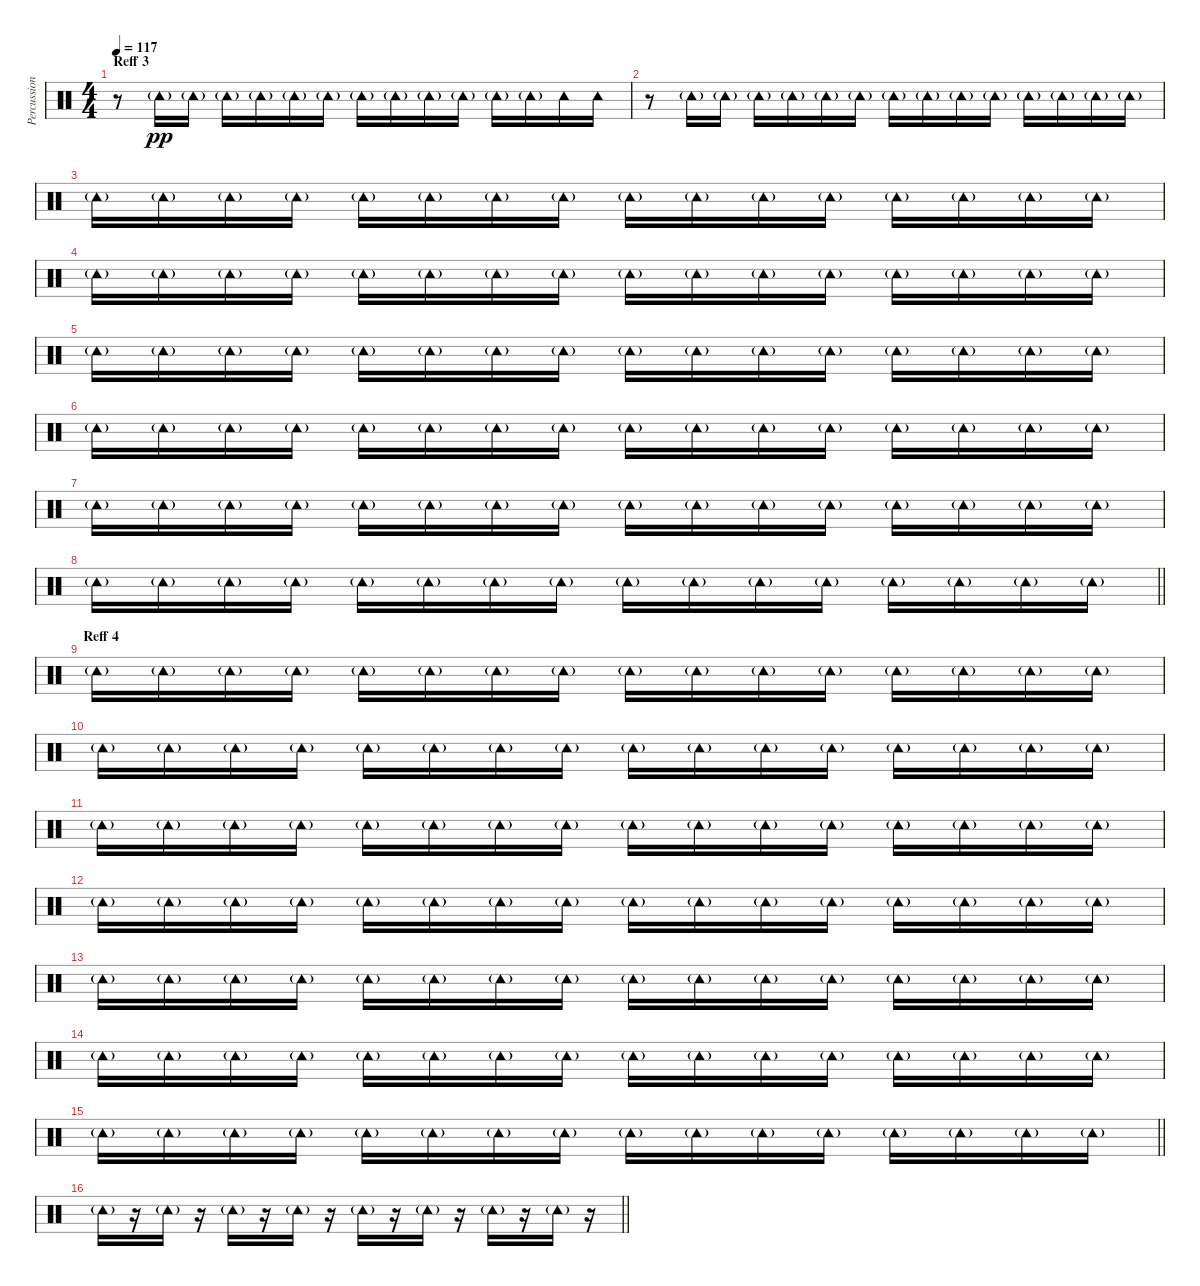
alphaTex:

\track ("Percussion 2" "Percussion") {instrument percussion}
\staff {score}
\articulation defaults
\ts (4 4)
\section ("" "Reff 3")
\tempo 117
\clef neutral
\ks c
r.8{dy pp} "Tambourine (hit)"{g}.16 "Tambourine (hit)"{g}.16 "Tambourine (hit)"{g}.16 "Tambourine (hit)"{g}.16 "Tambourine (hit)"{g}.16 "Tambourine (hit)"{g}.16 "Tambourine (hit)"{g}.16 "Tambourine (hit)"{g}.16 "Tambourine (hit)"{g}.16 "Tambourine (hit)"{g}.16 "Tambourine (hit)"{g}.16 "Tambourine (hit)"{g}.16 "Tambourine (hit)".16 "Tambourine (hit)".16 |
r.8 "Tambourine (hit)"{g}.16 "Tambourine (hit)"{g}.16 "Tambourine (hit)"{g}.16 "Tambourine (hit)"{g}.16 "Tambourine (hit)"{g}.16 "Tambourine (hit)"{g}.16 "Tambourine (hit)"{g}.16 "Tambourine (hit)"{g}.16 "Tambourine (hit)"{g}.16 "Tambourine (hit)"{g}.16 "Tambourine (hit)"{g}.16 "Tambourine (hit)"{g}.16 "Tambourine (hit)"{g}.16 "Tambourine (hit)"{g}.16 |
"Tambourine (hit)"{g}.16 "Tambourine (hit)"{g}.16 "Tambourine (hit)"{g}.16 "Tambourine (hit)"{g}.16 "Tambourine (hit)"{g}.16 "Tambourine (hit)"{g}.16 "Tambourine (hit)"{g}.16 "Tambourine (hit)"{g}.16 "Tambourine (hit)"{g}.16 "Tambourine (hit)"{g}.16 "Tambourine (hit)"{g}.16 "Tambourine (hit)"{g}.16 "Tambourine (hit)"{g}.16 "Tambourine (hit)"{g}.16 "Tambourine (hit)"{g}.16 "Tambourine (hit)"{g}.16 |
"Tambourine (hit)"{g}.16 "Tambourine (hit)"{g}.16 "Tambourine (hit)"{g}.16 "Tambourine (hit)"{g}.16 "Tambourine (hit)"{g}.16 "Tambourine (hit)"{g}.16 "Tambourine (hit)"{g}.16 "Tambourine (hit)"{g}.16 "Tambourine (hit)"{g}.16 "Tambourine (hit)"{g}.16 "Tambourine (hit)"{g}.16 "Tambourine (hit)"{g}.16 "Tambourine (hit)"{g}.16 "Tambourine (hit)"{g}.16 "Tambourine (hit)"{g}.16 "Tambourine (hit)"{g}.16 |
"Tambourine (hit)"{g}.16 "Tambourine (hit)"{g}.16 "Tambourine (hit)"{g}.16 "Tambourine (hit)"{g}.16 "Tambourine (hit)"{g}.16 "Tambourine (hit)"{g}.16 "Tambourine (hit)"{g}.16 "Tambourine (hit)"{g}.16 "Tambourine (hit)"{g}.16 "Tambourine (hit)"{g}.16 "Tambourine (hit)"{g}.16 "Tambourine (hit)"{g}.16 "Tambourine (hit)"{g}.16 "Tambourine (hit)"{g}.16 "Tambourine (hit)"{g}.16 "Tambourine (hit)"{g}.16 |
"Tambourine (hit)"{g}.16 "Tambourine (hit)"{g}.16 "Tambourine (hit)"{g}.16 "Tambourine (hit)"{g}.16 "Tambourine (hit)"{g}.16 "Tambourine (hit)"{g}.16 "Tambourine (hit)"{g}.16 "Tambourine (hit)"{g}.16 "Tambourine (hit)"{g}.16 "Tambourine (hit)"{g}.16 "Tambourine (hit)"{g}.16 "Tambourine (hit)"{g}.16 "Tambourine (hit)"{g}.16 "Tambourine (hit)"{g}.16 "Tambourine (hit)"{g}.16 "Tambourine (hit)"{g}.16 |
"Tambourine (hit)"{g}.16 "Tambourine (hit)"{g}.16 "Tambourine (hit)"{g}.16 "Tambourine (hit)"{g}.16 "Tambourine (hit)"{g}.16 "Tambourine (hit)"{g}.16 "Tambourine (hit)"{g}.16 "Tambourine (hit)"{g}.16 "Tambourine (hit)"{g}.16 "Tambourine (hit)"{g}.16 "Tambourine (hit)"{g}.16 "Tambourine (hit)"{g}.16 "Tambourine (hit)"{g}.16 "Tambourine (hit)"{g}.16 "Tambourine (hit)"{g}.16 "Tambourine (hit)"{g}.16 |
\barLineRight lightlight "Tambourine (hit)"{g}.16 "Tambourine (hit)"{g}.16 "Tambourine (hit)"{g}.16 "Tambourine (hit)"{g}.16 "Tambourine (hit)"{g}.16 "Tambourine (hit)"{g}.16 "Tambourine (hit)"{g}.16 "Tambourine (hit)"{g}.16 "Tambourine (hit)"{g}.16 "Tambourine (hit)"{g}.16 "Tambourine (hit)"{g}.16 "Tambourine (hit)"{g}.16 "Tambourine (hit)"{g}.16 "Tambourine (hit)"{g}.16 "Tambourine (hit)"{g}.16 "Tambourine (hit)"{g}.16
|
\section ("" "Reff 4")
"Tambourine (hit)"{g}.16 "Tambourine (hit)"{g}.16 "Tambourine (hit)"{g}.16 "Tambourine (hit)"{g}.16 "Tambourine (hit)"{g}.16 "Tambourine (hit)"{g}.16 "Tambourine (hit)"{g}.16 "Tambourine (hit)"{g}.16 "Tambourine (hit)"{g}.16 "Tambourine (hit)"{g}.16 "Tambourine (hit)"{g}.16 "Tambourine (hit)"{g}.16 "Tambourine (hit)"{g}.16 "Tambourine (hit)"{g}.16 "Tambourine (hit)"{g}.16 "Tambourine (hit)"{g}.16 |
"Tambourine (hit)"{g}.16 "Tambourine (hit)"{g}.16 "Tambourine (hit)"{g}.16 "Tambourine (hit)"{g}.16 "Tambourine (hit)"{g}.16 "Tambourine (hit)"{g}.16 "Tambourine (hit)"{g}.16 "Tambourine (hit)"{g}.16 "Tambourine (hit)"{g}.16 "Tambourine (hit)"{g}.16 "Tambourine (hit)"{g}.16 "Tambourine (hit)"{g}.16 "Tambourine (hit)"{g}.16 "Tambourine (hit)"{g}.16 "Tambourine (hit)"{g}.16 "Tambourine (hit)"{g}.16 |
"Tambourine (hit)"{g}.16 "Tambourine (hit)"{g}.16 "Tambourine (hit)"{g}.16 "Tambourine (hit)"{g}.16 "Tambourine (hit)"{g}.16 "Tambourine (hit)"{g}.16 "Tambourine (hit)"{g}.16 "Tambourine (hit)"{g}.16 "Tambourine (hit)"{g}.16 "Tambourine (hit)"{g}.16 "Tambourine (hit)"{g}.16 "Tambourine (hit)"{g}.16 "Tambourine (hit)"{g}.16 "Tambourine (hit)"{g}.16 "Tambourine (hit)"{g}.16 "Tambourine (hit)"{g}.16 |
"Tambourine (hit)"{g}.16 "Tambourine (hit)"{g}.16 "Tambourine (hit)"{g}.16 "Tambourine (hit)"{g}.16 "Tambourine (hit)"{g}.16 "Tambourine (hit)"{g}.16 "Tambourine (hit)"{g}.16 "Tambourine (hit)"{g}.16 "Tambourine (hit)"{g}.16 "Tambourine (hit)"{g}.16 "Tambourine (hit)"{g}.16 "Tambourine (hit)"{g}.16 "Tambourine (hit)"{g}.16 "Tambourine (hit)"{g}.16 "Tambourine (hit)"{g}.16 "Tambourine (hit)"{g}.16 |
"Tambourine (hit)"{g}.16 "Tambourine (hit)"{g}.16 "Tambourine (hit)"{g}.16 "Tambourine (hit)"{g}.16 "Tambourine (hit)"{g}.16 "Tambourine (hit)"{g}.16 "Tambourine (hit)"{g}.16 "Tambourine (hit)"{g}.16 "Tambourine (hit)"{g}.16 "Tambourine (hit)"{g}.16 "Tambourine (hit)"{g}.16 "Tambourine (hit)"{g}.16 "Tambourine (hit)"{g}.16 "Tambourine (hit)"{g}.16 "Tambourine (hit)"{g}.16 "Tambourine (hit)"{g}.16 |
"Tambourine (hit)"{g}.16 "Tambourine (hit)"{g}.16 "Tambourine (hit)"{g}.16 "Tambourine (hit)"{g}.16 "Tambourine (hit)"{g}.16 "Tambourine (hit)"{g}.16 "Tambourine (hit)"{g}.16 "Tambourine (hit)"{g}.16 "Tambourine (hit)"{g}.16 "Tambourine (hit)"{g}.16 "Tambourine (hit)"{g}.16 "Tambourine (hit)"{g}.16 "Tambourine (hit)"{g}.16 "Tambourine (hit)"{g}.16 "Tambourine (hit)"{g}.16 "Tambourine (hit)"{g}.16 |
\barLineRight lightlight "Tambourine (hit)"{g}.16 "Tambourine (hit)"{g}.16 "Tambourine (hit)"{g}.16 "Tambourine (hit)"{g}.16 "Tambourine (hit)"{g}.16 "Tambourine (hit)"{g}.16 "Tambourine (hit)"{g}.16 "Tambourine (hit)"{g}.16 "Tambourine (hit)"{g}.16 "Tambourine (hit)"{g}.16 "Tambourine (hit)"{g}.16 "Tambourine (hit)"{g}.16 "Tambourine (hit)"{g}.16 "Tambourine (hit)"{g}.16 "Tambourine (hit)"{g}.16 "Tambourine (hit)"{g}.16
|
\barLineRight lightlight "Tambourine (hit)"{g}.16
r.16 "Tambourine (hit)"{g}.16 r.16 "Tambourine (hit)"{g}.16 r.16 "Tambourine (hit)"{g}.16 r.16 "Tambourine (hit)"{g}.16 r.16 "Tambourine (hit)"{g}.16 r.16 "Tambourine (hit)"{g}.16 r.16 "Tambourine (hit)"{g}.16 r.16
